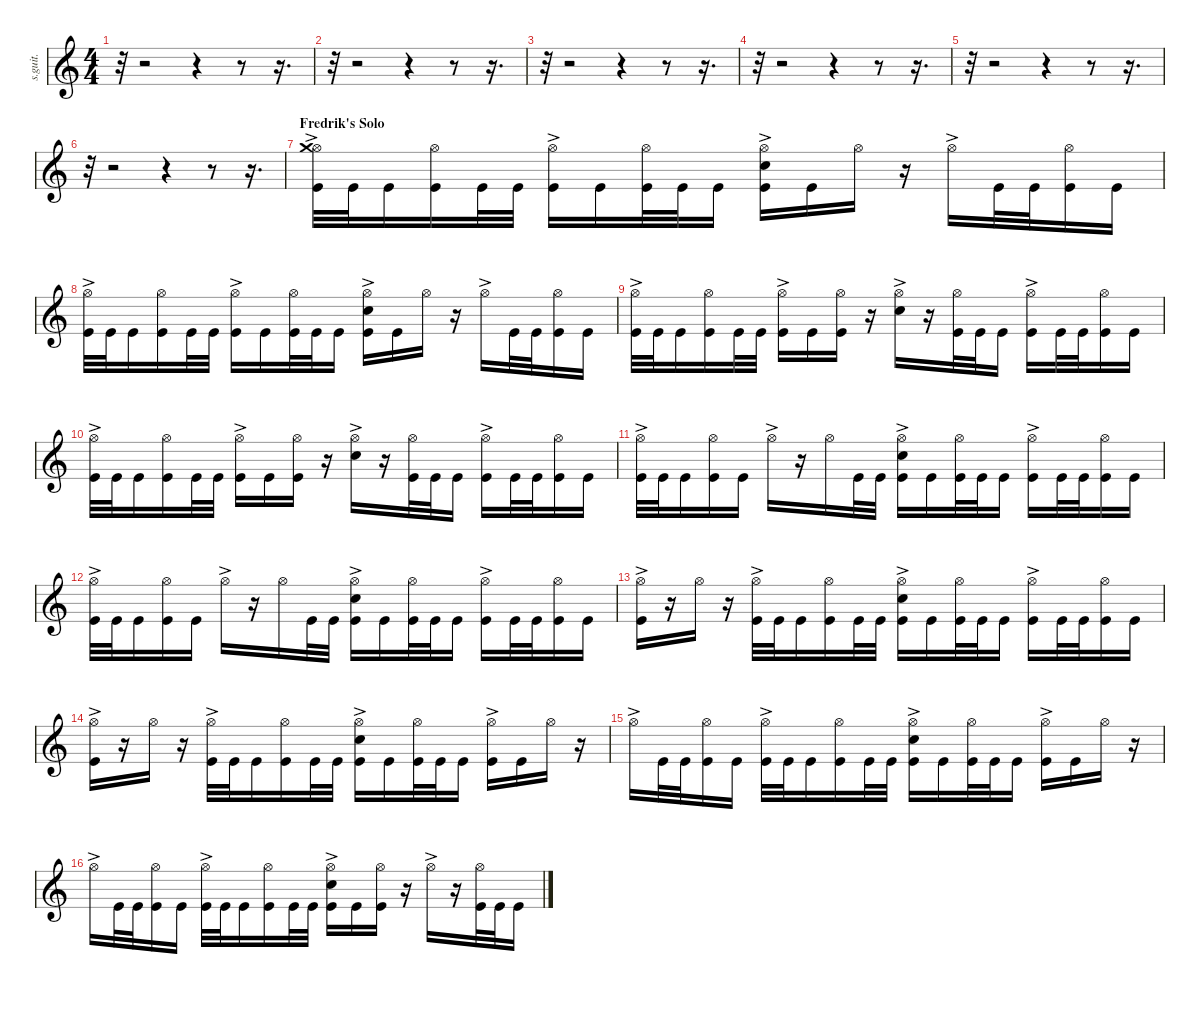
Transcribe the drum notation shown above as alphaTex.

\defaultSystemsLayout 4
\hideDynamics
\bracketExtendMode nobrackets
\track ("Tomas Haake (Drums)" "s.guit.") {instrument percussion}
\staff {score}
\articulation defaults
\ts (4 4)
\tempo (115 hide)
\clef g2
\ks c
r.32{dy mf} r.2 r.4 r.8 r.16{d} |
r.32 r.2 r.4 r.8 r.16{d} |
r.32 r.2 r.4 r.8 r.16{d} |
r.32 r.2 r.4 r.8 r.16{d} |
r.32 r.2 r.4 r.8 r.16{d} |
r.32 r.2 r.4 r.8 r.16{d} |
\section ("" "Fredrik's Solo")
("Hi-Hat (open)"{ac} "Crash medium (hit)" "Kick (hit)").32{lyrics (0 "") lyrics (1 "") lyrics (2 "") lyrics (3 "") lyrics (4 "") dy f} "Kick (hit)".32{lyrics (0 "") lyrics (1 "") lyrics (2 "") lyrics (3 "") lyrics (4 "") dy mf} "Kick (hit)".16{lyrics (0 "") lyrics (1 "") lyrics (2 "") lyrics (3 "") lyrics (4 "") dy f} ("Hi-Hat (open)" "Kick (hit)").16{lyrics (0 "") lyrics (1 "") lyrics (2 "") lyrics (3 "") lyrics (4 "") dy pp} "Kick (hit)".32{lyrics (0 "") lyrics (1 "") lyrics (2 "") lyrics (3 "") lyrics (4 "") dy f} "Kick (hit)".32{lyrics (0 "") lyrics (1 "") lyrics (2 "") lyrics (3 "") lyrics (4 "") dy mf} ("Hi-Hat (open)"{ac} "Kick (hit)").16{lyrics (0 "") lyrics (1 "") lyrics (2 "") lyrics (3 "") lyrics (4 "") dy f} "Kick (hit)".16{lyrics (0 "") lyrics (1 "") lyrics (2 "") lyrics (3 "") lyrics (4 "")} ("Hi-Hat (open)" "Kick (hit)").32{lyrics (0 "") lyrics (1 "") lyrics (2 "") lyrics (3 "") lyrics (4 "") dy pp} "Kick (hit)".32{lyrics (0 "") lyrics (1 "") lyrics (2 "") lyrics (3 "") lyrics (4 "") dy mf} "Kick (hit)".16{lyrics (0 "") lyrics (1 "") lyrics (2 "") lyrics (3 "") lyrics (4 "") dy f} ("Hi-Hat (open)"{ac} "Snare (hit) 2" "Kick (hit)").16{lyrics (0 "") lyrics (1 "") lyrics (2 "") lyrics (3 "") lyrics (4 "")} "Kick (hit)".16{lyrics (0 "") lyrics (1 "") lyrics (2 "") lyrics (3 "") lyrics (4 "")} "Hi-Hat (open)".16{lyrics (0 "") lyrics (1 "") lyrics (2 "") lyrics (3 "") lyrics (4 "") dy pp} r.16 "Hi-Hat (open)"{ac}.16{lyrics (0 "") lyrics (1 "") lyrics (2 "") lyrics (3 "") lyrics (4 "") dy ppp} "Kick (hit)".32{lyrics (0 "") lyrics (1 "") lyrics (2 "") lyrics (3 "") lyrics (4 "") dy f} "Kick (hit)".32{lyrics (0 "") lyrics (1 "") lyrics (2 "") lyrics (3 "") lyrics (4 "") dy mf} ("Hi-Hat (open)" "Kick (hit)").16{lyrics (0 "") lyrics (1 "") lyrics (2 "") lyrics (3 "") lyrics (4 "") dy pp} "Kick (hit)".16{lyrics (0 "") lyrics (1 "") lyrics (2 "") lyrics (3 "") lyrics (4 "") dy f} |
("Hi-Hat (open)"{ac} "Kick (hit)").32{lyrics (0 "") lyrics (1 "") lyrics (2 "") lyrics (3 "") lyrics (4 "")} "Kick (hit)".32{lyrics (0 "") lyrics (1 "") lyrics (2 "") lyrics (3 "") lyrics (4 "") dy mf} "Kick (hit)".16{lyrics (0 "") lyrics (1 "") lyrics (2 "") lyrics (3 "") lyrics (4 "") dy f} ("Hi-Hat (open)" "Kick (hit)").16{lyrics (0 "") lyrics (1 "") lyrics (2 "") lyrics (3 "") lyrics (4 "") dy pp} "Kick (hit)".32{lyrics (0 "") lyrics (1 "") lyrics (2 "") lyrics (3 "") lyrics (4 "") dy f} "Kick (hit)".32{lyrics (0 "") lyrics (1 "") lyrics (2 "") lyrics (3 "") lyrics (4 "") dy mf} ("Hi-Hat (open)"{ac} "Kick (hit)").16{lyrics (0 "") lyrics (1 "") lyrics (2 "") lyrics (3 "") lyrics (4 "") dy f} "Kick (hit)".16{lyrics (0 "") lyrics (1 "") lyrics (2 "") lyrics (3 "") lyrics (4 "")} ("Hi-Hat (open)" "Kick (hit)").32{lyrics (0 "") lyrics (1 "") lyrics (2 "") lyrics (3 "") lyrics (4 "") dy pp} "Kick (hit)".32{lyrics (0 "") lyrics (1 "") lyrics (2 "") lyrics (3 "") lyrics (4 "") dy mf} "Kick (hit)".16{lyrics (0 "") lyrics (1 "") lyrics (2 "") lyrics (3 "") lyrics (4 "") dy f} ("Hi-Hat (open)"{ac} "Snare (hit) 2" "Kick (hit)").16{lyrics (0 "") lyrics (1 "") lyrics (2 "") lyrics (3 "") lyrics (4 "")} "Kick (hit)".16{lyrics (0 "") lyrics (1 "") lyrics (2 "") lyrics (3 "") lyrics (4 "")} "Hi-Hat (open)".16{lyrics (0 "") lyrics (1 "") lyrics (2 "") lyrics (3 "") lyrics (4 "") dy pp} r.16 "Hi-Hat (open)"{ac}.16{lyrics (0 "") lyrics (1 "") lyrics (2 "") lyrics (3 "") lyrics (4 "") dy ppp} "Kick (hit)".32{lyrics (0 "") lyrics (1 "") lyrics (2 "") lyrics (3 "") lyrics (4 "") dy f} "Kick (hit)".32{lyrics (0 "") lyrics (1 "") lyrics (2 "") lyrics (3 "") lyrics (4 "") dy mf} ("Hi-Hat (open)" "Kick (hit)").16{lyrics (0 "") lyrics (1 "") lyrics (2 "") lyrics (3 "") lyrics (4 "") dy pp} "Kick (hit)".16{lyrics (0 "") lyrics (1 "") lyrics (2 "") lyrics (3 "") lyrics (4 "") dy f} |
("Hi-Hat (open)"{ac} "Kick (hit)").32{lyrics (0 "") lyrics (1 "") lyrics (2 "") lyrics (3 "") lyrics (4 "")} "Kick (hit)".32{lyrics (0 "") lyrics (1 "") lyrics (2 "") lyrics (3 "") lyrics (4 "") dy mf} "Kick (hit)".16{lyrics (0 "") lyrics (1 "") lyrics (2 "") lyrics (3 "") lyrics (4 "") dy f} ("Hi-Hat (open)" "Kick (hit)").16{lyrics (0 "") lyrics (1 "") lyrics (2 "") lyrics (3 "") lyrics (4 "") dy pp} "Kick (hit)".32{lyrics (0 "") lyrics (1 "") lyrics (2 "") lyrics (3 "") lyrics (4 "") dy f} "Kick (hit)".32{lyrics (0 "") lyrics (1 "") lyrics (2 "") lyrics (3 "") lyrics (4 "") dy mf} ("Hi-Hat (open)"{ac} "Kick (hit)").16{lyrics (0 "") lyrics (1 "") lyrics (2 "") lyrics (3 "") lyrics (4 "") dy f} "Kick (hit)".16{lyrics (0 "") lyrics (1 "") lyrics (2 "") lyrics (3 "") lyrics (4 "")} ("Hi-Hat (open)" "Kick (hit)").16{lyrics (0 "") lyrics (1 "") lyrics (2 "") lyrics (3 "") lyrics (4 "") dy pp} r.16 ("Hi-Hat (open)"{ac} "Snare (hit) 2").16{lyrics (0 "") lyrics (1 "") lyrics (2 "") lyrics (3 "") lyrics (4 "") dy f} r.16 ("Hi-Hat (open)" "Kick (hit)").32{lyrics (0 "") lyrics (1 "") lyrics (2 "") lyrics (3 "") lyrics (4 "") dy pp} "Kick (hit)".32{lyrics (0 "") lyrics (1 "") lyrics (2 "") lyrics (3 "") lyrics (4 "") dy mf} "Kick (hit)".16{lyrics (0 "") lyrics (1 "") lyrics (2 "") lyrics (3 "") lyrics (4 "") dy f} ("Hi-Hat (open)"{ac} "Kick (hit)").16{lyrics (0 "") lyrics (1 "") lyrics (2 "") lyrics (3 "") lyrics (4 "")} "Kick (hit)".32{lyrics (0 "") lyrics (1 "") lyrics (2 "") lyrics (3 "") lyrics (4 "")} "Kick (hit)".32{lyrics (0 "") lyrics (1 "") lyrics (2 "") lyrics (3 "") lyrics (4 "") dy mf} ("Hi-Hat (open)" "Kick (hit)").16{lyrics (0 "") lyrics (1 "") lyrics (2 "") lyrics (3 "") lyrics (4 "") dy pp} "Kick (hit)".16{lyrics (0 "") lyrics (1 "") lyrics (2 "") lyrics (3 "") lyrics (4 "") dy f} |
("Hi-Hat (open)"{ac} "Kick (hit)").32{lyrics (0 "") lyrics (1 "") lyrics (2 "") lyrics (3 "") lyrics (4 "")} "Kick (hit)".32{lyrics (0 "") lyrics (1 "") lyrics (2 "") lyrics (3 "") lyrics (4 "") dy mf} "Kick (hit)".16{lyrics (0 "") lyrics (1 "") lyrics (2 "") lyrics (3 "") lyrics (4 "") dy f} ("Hi-Hat (open)" "Kick (hit)").16{lyrics (0 "") lyrics (1 "") lyrics (2 "") lyrics (3 "") lyrics (4 "") dy pp} "Kick (hit)".32{lyrics (0 "") lyrics (1 "") lyrics (2 "") lyrics (3 "") lyrics (4 "") dy f} "Kick (hit)".32{lyrics (0 "") lyrics (1 "") lyrics (2 "") lyrics (3 "") lyrics (4 "") dy mf} ("Hi-Hat (open)"{ac} "Kick (hit)").16{lyrics (0 "") lyrics (1 "") lyrics (2 "") lyrics (3 "") lyrics (4 "") dy f} "Kick (hit)".16{lyrics (0 "") lyrics (1 "") lyrics (2 "") lyrics (3 "") lyrics (4 "")} ("Hi-Hat (open)" "Kick (hit)").16{lyrics (0 "") lyrics (1 "") lyrics (2 "") lyrics (3 "") lyrics (4 "") dy pp} r.16 ("Hi-Hat (open)"{ac} "Snare (hit) 2").16{lyrics (0 "") lyrics (1 "") lyrics (2 "") lyrics (3 "") lyrics (4 "") dy f} r.16 ("Hi-Hat (open)" "Kick (hit)").32{lyrics (0 "") lyrics (1 "") lyrics (2 "") lyrics (3 "") lyrics (4 "") dy pp} "Kick (hit)".32{lyrics (0 "") lyrics (1 "") lyrics (2 "") lyrics (3 "") lyrics (4 "") dy mf} "Kick (hit)".16{lyrics (0 "") lyrics (1 "") lyrics (2 "") lyrics (3 "") lyrics (4 "") dy f} ("Hi-Hat (open)"{ac} "Kick (hit)").16{lyrics (0 "") lyrics (1 "") lyrics (2 "") lyrics (3 "") lyrics (4 "")} "Kick (hit)".32{lyrics (0 "") lyrics (1 "") lyrics (2 "") lyrics (3 "") lyrics (4 "")} "Kick (hit)".32{lyrics (0 "") lyrics (1 "") lyrics (2 "") lyrics (3 "") lyrics (4 "") dy mf} ("Hi-Hat (open)" "Kick (hit)").16{lyrics (0 "") lyrics (1 "") lyrics (2 "") lyrics (3 "") lyrics (4 "") dy pp} "Kick (hit)".16{lyrics (0 "") lyrics (1 "") lyrics (2 "") lyrics (3 "") lyrics (4 "") dy f} |
("Hi-Hat (open)"{ac} "Kick (hit)").32{lyrics (0 "") lyrics (1 "") lyrics (2 "") lyrics (3 "") lyrics (4 "")} "Kick (hit)".32{lyrics (0 "") lyrics (1 "") lyrics (2 "") lyrics (3 "") lyrics (4 "") dy mf} "Kick (hit)".16{lyrics (0 "") lyrics (1 "") lyrics (2 "") lyrics (3 "") lyrics (4 "") dy f} ("Hi-Hat (open)" "Kick (hit)").16{lyrics (0 "") lyrics (1 "") lyrics (2 "") lyrics (3 "") lyrics (4 "") dy pp} "Kick (hit)".16{lyrics (0 "") lyrics (1 "") lyrics (2 "") lyrics (3 "") lyrics (4 "") dy f} "Hi-Hat (open)"{ac}.16{lyrics (0 "") lyrics (1 "") lyrics (2 "") lyrics (3 "") lyrics (4 "") dy ppp} r.16 "Hi-Hat (open)".16{lyrics (0 "") lyrics (1 "") lyrics (2 "") lyrics (3 "") lyrics (4 "") dy pp} "Kick (hit)".32{lyrics (0 "") lyrics (1 "") lyrics (2 "") lyrics (3 "") lyrics (4 "") dy f} "Kick (hit)".32{lyrics (0 "") lyrics (1 "") lyrics (2 "") lyrics (3 "") lyrics (4 "") dy mf} ("Hi-Hat (open)"{ac} "Snare (hit) 2" "Kick (hit)").16{lyrics (0 "") lyrics (1 "") lyrics (2 "") lyrics (3 "") lyrics (4 "") dy f} "Kick (hit)".16{lyrics (0 "") lyrics (1 "") lyrics (2 "") lyrics (3 "") lyrics (4 "")} ("Hi-Hat (open)" "Kick (hit)").32{lyrics (0 "") lyrics (1 "") lyrics (2 "") lyrics (3 "") lyrics (4 "") dy pp} "Kick (hit)".32{lyrics (0 "") lyrics (1 "") lyrics (2 "") lyrics (3 "") lyrics (4 "") dy mf} "Kick (hit)".16{lyrics (0 "") lyrics (1 "") lyrics (2 "") lyrics (3 "") lyrics (4 "") dy f} ("Hi-Hat (open)"{ac} "Kick (hit)").16{lyrics (0 "") lyrics (1 "") lyrics (2 "") lyrics (3 "") lyrics (4 "")} "Kick (hit)".32{lyrics (0 "") lyrics (1 "") lyrics (2 "") lyrics (3 "") lyrics (4 "")} "Kick (hit)".32{lyrics (0 "") lyrics (1 "") lyrics (2 "") lyrics (3 "") lyrics (4 "") dy mf} ("Hi-Hat (open)" "Kick (hit)").16{lyrics (0 "") lyrics (1 "") lyrics (2 "") lyrics (3 "") lyrics (4 "") dy pp} "Kick (hit)".16{lyrics (0 "") lyrics (1 "") lyrics (2 "") lyrics (3 "") lyrics (4 "") dy f} |
("Hi-Hat (open)"{ac} "Kick (hit)").32{lyrics (0 "") lyrics (1 "") lyrics (2 "") lyrics (3 "") lyrics (4 "")} "Kick (hit)".32{lyrics (0 "") lyrics (1 "") lyrics (2 "") lyrics (3 "") lyrics (4 "") dy mf} "Kick (hit)".16{lyrics (0 "") lyrics (1 "") lyrics (2 "") lyrics (3 "") lyrics (4 "") dy f} ("Hi-Hat (open)" "Kick (hit)").16{lyrics (0 "") lyrics (1 "") lyrics (2 "") lyrics (3 "") lyrics (4 "") dy pp} "Kick (hit)".16{lyrics (0 "") lyrics (1 "") lyrics (2 "") lyrics (3 "") lyrics (4 "") dy f} "Hi-Hat (open)"{ac}.16{lyrics (0 "") lyrics (1 "") lyrics (2 "") lyrics (3 "") lyrics (4 "") dy ppp} r.16 "Hi-Hat (open)".16{lyrics (0 "") lyrics (1 "") lyrics (2 "") lyrics (3 "") lyrics (4 "") dy pp} "Kick (hit)".32{lyrics (0 "") lyrics (1 "") lyrics (2 "") lyrics (3 "") lyrics (4 "") dy f} "Kick (hit)".32{lyrics (0 "") lyrics (1 "") lyrics (2 "") lyrics (3 "") lyrics (4 "") dy mf} ("Hi-Hat (open)"{ac} "Snare (hit) 2" "Kick (hit)").16{lyrics (0 "") lyrics (1 "") lyrics (2 "") lyrics (3 "") lyrics (4 "") dy f} "Kick (hit)".16{lyrics (0 "") lyrics (1 "") lyrics (2 "") lyrics (3 "") lyrics (4 "")} ("Hi-Hat (open)" "Kick (hit)").32{lyrics (0 "") lyrics (1 "") lyrics (2 "") lyrics (3 "") lyrics (4 "") dy pp} "Kick (hit)".32{lyrics (0 "") lyrics (1 "") lyrics (2 "") lyrics (3 "") lyrics (4 "") dy mf} "Kick (hit)".16{lyrics (0 "") lyrics (1 "") lyrics (2 "") lyrics (3 "") lyrics (4 "") dy f} ("Hi-Hat (open)"{ac} "Kick (hit)").16{lyrics (0 "") lyrics (1 "") lyrics (2 "") lyrics (3 "") lyrics (4 "")} "Kick (hit)".32{lyrics (0 "") lyrics (1 "") lyrics (2 "") lyrics (3 "") lyrics (4 "")} "Kick (hit)".32{lyrics (0 "") lyrics (1 "") lyrics (2 "") lyrics (3 "") lyrics (4 "") dy mf} ("Hi-Hat (open)" "Kick (hit)").16{lyrics (0 "") lyrics (1 "") lyrics (2 "") lyrics (3 "") lyrics (4 "") dy pp} "Kick (hit)".16{lyrics (0 "") lyrics (1 "") lyrics (2 "") lyrics (3 "") lyrics (4 "") dy f} |
("Hi-Hat (open)"{ac} "Kick (hit)").16{lyrics (0 "") lyrics (1 "") lyrics (2 "") lyrics (3 "") lyrics (4 "")} r.16 "Hi-Hat (open)".16{lyrics (0 "") lyrics (1 "") lyrics (2 "") lyrics (3 "") lyrics (4 "") dy pp} r.16 ("Hi-Hat (open)"{ac} "Kick (hit)").32{lyrics (0 "") lyrics (1 "") lyrics (2 "") lyrics (3 "") lyrics (4 "") dy f} "Kick (hit)".32{lyrics (0 "") lyrics (1 "") lyrics (2 "") lyrics (3 "") lyrics (4 "") dy mf} "Kick (hit)".16{lyrics (0 "") lyrics (1 "") lyrics (2 "") lyrics (3 "") lyrics (4 "") dy f} ("Hi-Hat (open)" "Kick (hit)").16{lyrics (0 "") lyrics (1 "") lyrics (2 "") lyrics (3 "") lyrics (4 "") dy pp} "Kick (hit)".32{lyrics (0 "") lyrics (1 "") lyrics (2 "") lyrics (3 "") lyrics (4 "") dy f} "Kick (hit)".32{lyrics (0 "") lyrics (1 "") lyrics (2 "") lyrics (3 "") lyrics (4 "") dy mf} ("Hi-Hat (open)"{ac} "Snare (hit) 2" "Kick (hit)").16{lyrics (0 "") lyrics (1 "") lyrics (2 "") lyrics (3 "") lyrics (4 "") dy f} "Kick (hit)".16{lyrics (0 "") lyrics (1 "") lyrics (2 "") lyrics (3 "") lyrics (4 "")} ("Hi-Hat (open)" "Kick (hit)").32{lyrics (0 "") lyrics (1 "") lyrics (2 "") lyrics (3 "") lyrics (4 "") dy pp} "Kick (hit)".32{lyrics (0 "") lyrics (1 "") lyrics (2 "") lyrics (3 "") lyrics (4 "") dy mf} "Kick (hit)".16{lyrics (0 "") lyrics (1 "") lyrics (2 "") lyrics (3 "") lyrics (4 "") dy f} ("Hi-Hat (open)"{ac} "Kick (hit)").16{lyrics (0 "") lyrics (1 "") lyrics (2 "") lyrics (3 "") lyrics (4 "")} "Kick (hit)".32{lyrics (0 "") lyrics (1 "") lyrics (2 "") lyrics (3 "") lyrics (4 "")} "Kick (hit)".32{lyrics (0 "") lyrics (1 "") lyrics (2 "") lyrics (3 "") lyrics (4 "") dy mf} ("Hi-Hat (open)" "Kick (hit)").16{lyrics (0 "") lyrics (1 "") lyrics (2 "") lyrics (3 "") lyrics (4 "") dy pp} "Kick (hit)".16{lyrics (0 "") lyrics (1 "") lyrics (2 "") lyrics (3 "") lyrics (4 "") dy f} |
("Hi-Hat (open)"{ac} "Kick (hit)").16{lyrics (0 "") lyrics (1 "") lyrics (2 "") lyrics (3 "") lyrics (4 "")} r.16 "Hi-Hat (open)".16{lyrics (0 "") lyrics (1 "") lyrics (2 "") lyrics (3 "") lyrics (4 "") dy pp} r.16 ("Hi-Hat (open)"{ac} "Kick (hit)").32{lyrics (0 "") lyrics (1 "") lyrics (2 "") lyrics (3 "") lyrics (4 "") dy f} "Kick (hit)".32{lyrics (0 "") lyrics (1 "") lyrics (2 "") lyrics (3 "") lyrics (4 "") dy mf} "Kick (hit)".16{lyrics (0 "") lyrics (1 "") lyrics (2 "") lyrics (3 "") lyrics (4 "") dy f} ("Hi-Hat (open)" "Kick (hit)").16{lyrics (0 "") lyrics (1 "") lyrics (2 "") lyrics (3 "") lyrics (4 "") dy pp} "Kick (hit)".32{lyrics (0 "") lyrics (1 "") lyrics (2 "") lyrics (3 "") lyrics (4 "") dy f} "Kick (hit)".32{lyrics (0 "") lyrics (1 "") lyrics (2 "") lyrics (3 "") lyrics (4 "") dy mf} ("Hi-Hat (open)"{ac} "Snare (hit) 2" "Kick (hit)").16{lyrics (0 "") lyrics (1 "") lyrics (2 "") lyrics (3 "") lyrics (4 "") dy f} "Kick (hit)".16{lyrics (0 "") lyrics (1 "") lyrics (2 "") lyrics (3 "") lyrics (4 "")} ("Hi-Hat (open)" "Kick (hit)").32{lyrics (0 "") lyrics (1 "") lyrics (2 "") lyrics (3 "") lyrics (4 "") dy pp} "Kick (hit)".32{lyrics (0 "") lyrics (1 "") lyrics (2 "") lyrics (3 "") lyrics (4 "") dy mf} "Kick (hit)".16{lyrics (0 "") lyrics (1 "") lyrics (2 "") lyrics (3 "") lyrics (4 "") dy f} ("Hi-Hat (open)"{ac} "Kick (hit)").16{lyrics (0 "") lyrics (1 "") lyrics (2 "") lyrics (3 "") lyrics (4 "")} "Kick (hit)".16{lyrics (0 "") lyrics (1 "") lyrics (2 "") lyrics (3 "") lyrics (4 "")} "Hi-Hat (open)".16{lyrics (0 "") lyrics (1 "") lyrics (2 "") lyrics (3 "") lyrics (4 "") dy pp} r.16 |
"Hi-Hat (open)"{ac}.16{lyrics (0 "") lyrics (1 "") lyrics (2 "") lyrics (3 "") lyrics (4 "") dy ppp} "Kick (hit)".32{lyrics (0 "") lyrics (1 "") lyrics (2 "") lyrics (3 "") lyrics (4 "") dy f} "Kick (hit)".32{lyrics (0 "") lyrics (1 "") lyrics (2 "") lyrics (3 "") lyrics (4 "") dy mf} ("Hi-Hat (open)" "Kick (hit)").16{lyrics (0 "") lyrics (1 "") lyrics (2 "") lyrics (3 "") lyrics (4 "") dy pp} "Kick (hit)".16{lyrics (0 "") lyrics (1 "") lyrics (2 "") lyrics (3 "") lyrics (4 "") dy f} ("Hi-Hat (open)"{ac} "Kick (hit)").32{lyrics (0 "") lyrics (1 "") lyrics (2 "") lyrics (3 "") lyrics (4 "")} "Kick (hit)".32{lyrics (0 "") lyrics (1 "") lyrics (2 "") lyrics (3 "") lyrics (4 "") dy mf} "Kick (hit)".16{lyrics (0 "") lyrics (1 "") lyrics (2 "") lyrics (3 "") lyrics (4 "") dy f} ("Hi-Hat (open)" "Kick (hit)").16{lyrics (0 "") lyrics (1 "") lyrics (2 "") lyrics (3 "") lyrics (4 "") dy pp} "Kick (hit)".32{lyrics (0 "") lyrics (1 "") lyrics (2 "") lyrics (3 "") lyrics (4 "") dy f} "Kick (hit)".32{lyrics (0 "") lyrics (1 "") lyrics (2 "") lyrics (3 "") lyrics (4 "") dy mf} ("Hi-Hat (open)"{ac} "Snare (hit) 2" "Kick (hit)").16{lyrics (0 "") lyrics (1 "") lyrics (2 "") lyrics (3 "") lyrics (4 "") dy f} "Kick (hit)".16{lyrics (0 "") lyrics (1 "") lyrics (2 "") lyrics (3 "") lyrics (4 "")} ("Hi-Hat (open)" "Kick (hit)").32{lyrics (0 "") lyrics (1 "") lyrics (2 "") lyrics (3 "") lyrics (4 "") dy pp} "Kick (hit)".32{lyrics (0 "") lyrics (1 "") lyrics (2 "") lyrics (3 "") lyrics (4 "") dy mf} "Kick (hit)".16{lyrics (0 "") lyrics (1 "") lyrics (2 "") lyrics (3 "") lyrics (4 "") dy f} ("Hi-Hat (open)"{ac} "Kick (hit)").16{lyrics (0 "") lyrics (1 "") lyrics (2 "") lyrics (3 "") lyrics (4 "")} "Kick (hit)".16{lyrics (0 "") lyrics (1 "") lyrics (2 "") lyrics (3 "") lyrics (4 "")} "Hi-Hat (open)".16{lyrics (0 "") lyrics (1 "") lyrics (2 "") lyrics (3 "") lyrics (4 "") dy pp} r.16 |
"Hi-Hat (open)"{ac}.16{lyrics (0 "") lyrics (1 "") lyrics (2 "") lyrics (3 "") lyrics (4 "") dy ppp} "Kick (hit)".32{lyrics (0 "") lyrics (1 "") lyrics (2 "") lyrics (3 "") lyrics (4 "") dy f} "Kick (hit)".32{lyrics (0 "") lyrics (1 "") lyrics (2 "") lyrics (3 "") lyrics (4 "") dy mf} ("Hi-Hat (open)" "Kick (hit)").16{lyrics (0 "") lyrics (1 "") lyrics (2 "") lyrics (3 "") lyrics (4 "") dy pp} "Kick (hit)".16{lyrics (0 "") lyrics (1 "") lyrics (2 "") lyrics (3 "") lyrics (4 "") dy f} ("Hi-Hat (open)"{ac} "Kick (hit)").32{lyrics (0 "") lyrics (1 "") lyrics (2 "") lyrics (3 "") lyrics (4 "")} "Kick (hit)".32{lyrics (0 "") lyrics (1 "") lyrics (2 "") lyrics (3 "") lyrics (4 "") dy mf} "Kick (hit)".16{lyrics (0 "") lyrics (1 "") lyrics (2 "") lyrics (3 "") lyrics (4 "") dy f} ("Hi-Hat (open)" "Kick (hit)").16{lyrics (0 "") lyrics (1 "") lyrics (2 "") lyrics (3 "") lyrics (4 "") dy pp} "Kick (hit)".32{lyrics (0 "") lyrics (1 "") lyrics (2 "") lyrics (3 "") lyrics (4 "") dy f} "Kick (hit)".32{lyrics (0 "") lyrics (1 "") lyrics (2 "") lyrics (3 "") lyrics (4 "") dy mf} ("Hi-Hat (open)"{ac} "Snare (hit) 2" "Kick (hit)").16{lyrics (0 "") lyrics (1 "") lyrics (2 "") lyrics (3 "") lyrics (4 "") dy f} "Kick (hit)".16{lyrics (0 "") lyrics (1 "") lyrics (2 "") lyrics (3 "") lyrics (4 "")} ("Hi-Hat (open)" "Kick (hit)").16{lyrics (0 "") lyrics (1 "") lyrics (2 "") lyrics (3 "") lyrics (4 "") dy pp} r.16 "Hi-Hat (open)"{ac}.16{lyrics (0 "") lyrics (1 "") lyrics (2 "") lyrics (3 "") lyrics (4 "") dy ppp} r.16 ("Hi-Hat (open)" "Kick (hit)").32{lyrics (0 "") lyrics (1 "") lyrics (2 "") lyrics (3 "") lyrics (4 "") dy pp} "Kick (hit)".32{lyrics (0 "") lyrics (1 "") lyrics (2 "") lyrics (3 "") lyrics (4 "") dy mf} "Kick (hit)".16{lyrics (0 "") lyrics (1 "") lyrics (2 "") lyrics (3 "") lyrics (4 "") dy f}
